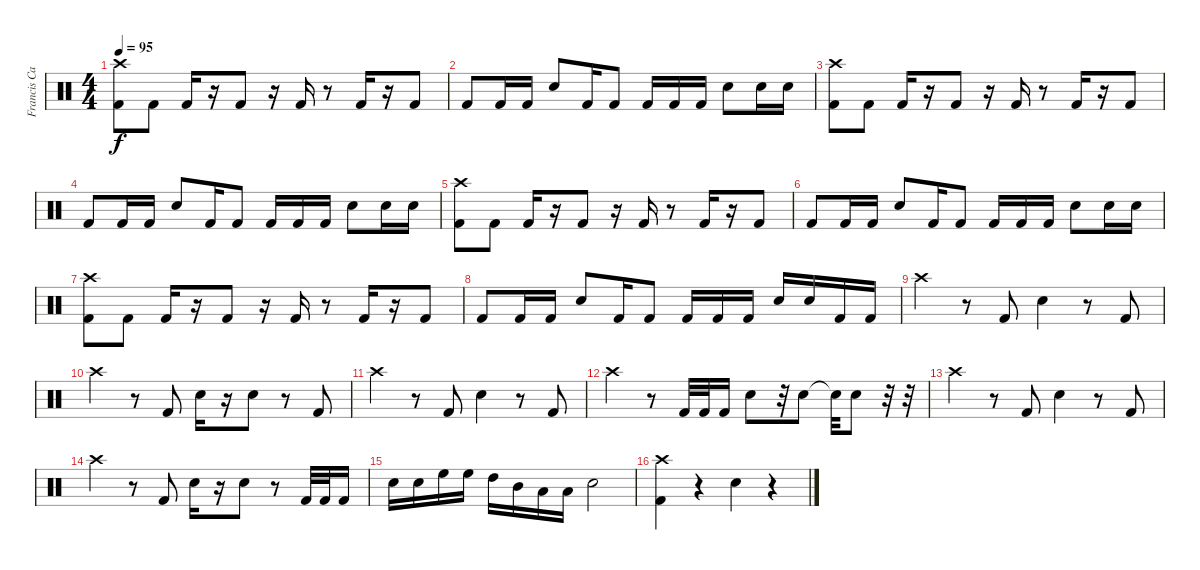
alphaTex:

\track ("Francis Cassol" "Francis Ca") {instrument percussion}
\staff {score}
\articulation defaults
\ts (4 4)
\tempo 95
\clef neutral
\ks c
("Crash high (hit)" "Kick (hit) 2").8{dy f} "Kick (hit) 2".8 "Kick (hit) 2".16 r.16 "Kick (hit) 2".8 r.16 "Kick (hit) 2".16 r.8 "Kick (hit) 2".16 r.16 "Kick (hit) 2".8 |
"Kick (hit) 2".8 "Kick (hit) 2".16 "Kick (hit) 2".16 "Electric Snare (hit)".8 "Kick (hit) 2".16 "Kick (hit) 2".8 "Kick (hit) 2".16 "Kick (hit) 2".16 "Kick (hit) 2".16 "Electric Snare (hit)".8 "Electric Snare (hit)".16 "Electric Snare (hit)".16 |
("Crash high (hit)" "Kick (hit) 2").8 "Kick (hit) 2".8 "Kick (hit) 2".16 r.16 "Kick (hit) 2".8 r.16 "Kick (hit) 2".16 r.8 "Kick (hit) 2".16 r.16 "Kick (hit) 2".8 |
"Kick (hit) 2".8 "Kick (hit) 2".16 "Kick (hit) 2".16 "Electric Snare (hit)".8 "Kick (hit) 2".16 "Kick (hit) 2".8 "Kick (hit) 2".16 "Kick (hit) 2".16 "Kick (hit) 2".16 "Electric Snare (hit)".8 "Electric Snare (hit)".16 "Electric Snare (hit)".16 |
("Crash high (hit)" "Kick (hit) 2").8 "Kick (hit) 2".8 "Kick (hit) 2".16 r.16 "Kick (hit) 2".8 r.16 "Kick (hit) 2".16 r.8 "Kick (hit) 2".16 r.16 "Kick (hit) 2".8 |
"Kick (hit) 2".8 "Kick (hit) 2".16 "Kick (hit) 2".16 "Electric Snare (hit)".8 "Kick (hit) 2".16 "Kick (hit) 2".8 "Kick (hit) 2".16 "Kick (hit) 2".16 "Kick (hit) 2".16 "Electric Snare (hit)".8 "Electric Snare (hit)".16 "Electric Snare (hit)".16 |
("Crash high (hit)" "Kick (hit) 2").8 "Kick (hit) 2".8 "Kick (hit) 2".16 r.16 "Kick (hit) 2".8 r.16 "Kick (hit) 2".16 r.8 "Kick (hit) 2".16 r.16 "Kick (hit) 2".8 |
"Kick (hit) 2".8 "Kick (hit) 2".16 "Kick (hit) 2".16 "Electric Snare (hit)".8 "Kick (hit) 2".16 "Kick (hit) 2".8 "Kick (hit) 2".16 "Kick (hit) 2".16 "Kick (hit) 2".16 "Electric Snare (hit)".16 "Electric Snare (hit)".16 "Kick (hit) 2".16 "Kick (hit) 2".16 |
"Crash high (hit)".4 r.8 "Kick (hit) 2".8 "Electric Snare (hit)".4 r.8 "Kick (hit) 2".8 |
"Crash high (hit)".4 r.8 "Kick (hit) 2".8 "Electric Snare (hit)".16 r.16 "Electric Snare (hit)".8 r.8 "Kick (hit) 2".8 |
"Crash high (hit)".4 r.8 "Kick (hit) 2".8 "Electric Snare (hit)".4 r.8 "Kick (hit) 2".8 |
"Crash high (hit)".4 r.8 "Kick (hit) 2".32 "Kick (hit) 2".32 "Kick (hit) 2".16 "Electric Snare (hit)".8 r.32 "Electric Snare (hit)".8 "Snare (hit)"{t}.32 "Electric Snare (hit)".8 r.32 r.32 |
"Crash high (hit)".4 r.8 "Kick (hit) 2".8 "Electric Snare (hit)".4 r.8 "Kick (hit) 2".8 |
"Crash high (hit)".4 r.8 "Kick (hit) 2".8 "Electric Snare (hit)".16 r.16 "Electric Snare (hit)".8 r.8 "Kick (hit) 2".32 "Kick (hit) 2".32 "Kick (hit) 2".16 |
"Electric Snare (hit)".16 "Electric Snare (hit)".16 "High Floor Tom (hit)".16 "High Floor Tom (hit)".16 "High Tom (hit)".16 "Mid Tom (hit)".16 "Low Tom (hit)".16 "Low Tom (hit)".16 "Electric Snare (hit)".2 |
("Crash high (hit)" "Kick (hit) 2").4 r.4 "Electric Snare (hit)".4 r.4
